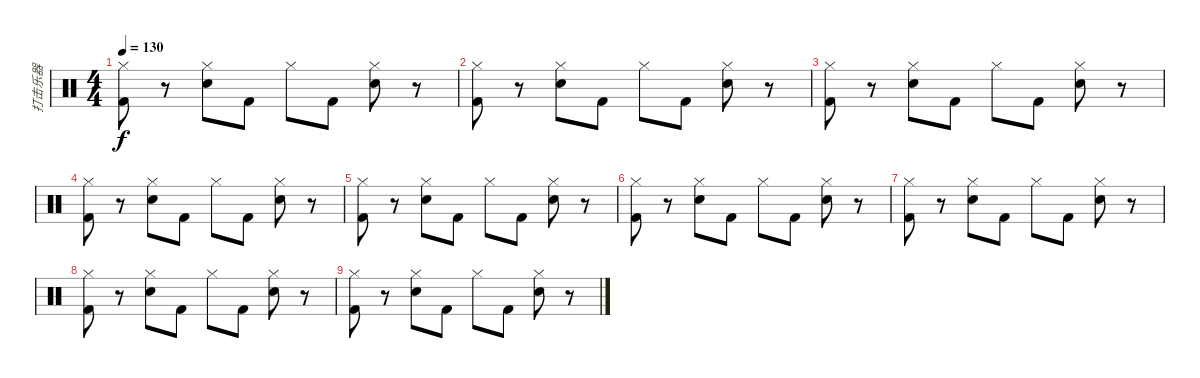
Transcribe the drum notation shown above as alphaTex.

\track ("打击乐器" "打击乐器") {instrument percussion}
\staff {score}
\articulation defaults
\ts (4 4)
\tempo 130
\clef neutral
\ks c
("Hi-Hat (closed)" "Kick (hit) 2").8{dy f} r.8 ("Hi-Hat (closed)" "Electric Snare (hit)").8 "Kick (hit) 2".8 "Hi-Hat (closed)".8 "Kick (hit) 2".8 ("Hi-Hat (closed)" "Electric Snare (hit)").8 r.8 |
("Hi-Hat (closed)" "Kick (hit) 2").8 r.8 ("Hi-Hat (closed)" "Electric Snare (hit)").8 "Kick (hit) 2".8 "Hi-Hat (closed)".8 "Kick (hit) 2".8 ("Hi-Hat (closed)" "Electric Snare (hit)").8 r.8 |
("Hi-Hat (closed)" "Kick (hit) 2").8 r.8 ("Hi-Hat (closed)" "Electric Snare (hit)").8 "Kick (hit) 2".8 "Hi-Hat (closed)".8 "Kick (hit) 2".8 ("Hi-Hat (closed)" "Electric Snare (hit)").8 r.8 |
("Hi-Hat (closed)" "Kick (hit) 2").8 r.8 ("Hi-Hat (closed)" "Electric Snare (hit)").8 "Kick (hit) 2".8 "Hi-Hat (closed)".8 "Kick (hit) 2".8 ("Hi-Hat (closed)" "Electric Snare (hit)").8 r.8 |
("Hi-Hat (closed)" "Kick (hit) 2").8 r.8 ("Hi-Hat (closed)" "Electric Snare (hit)").8 "Kick (hit) 2".8 "Hi-Hat (closed)".8 "Kick (hit) 2".8 ("Hi-Hat (closed)" "Electric Snare (hit)").8 r.8 |
("Hi-Hat (closed)" "Kick (hit) 2").8 r.8 ("Hi-Hat (closed)" "Electric Snare (hit)").8 "Kick (hit) 2".8 "Hi-Hat (closed)".8 "Kick (hit) 2".8 ("Hi-Hat (closed)" "Electric Snare (hit)").8 r.8 |
("Hi-Hat (closed)" "Kick (hit) 2").8 r.8 ("Hi-Hat (closed)" "Electric Snare (hit)").8 "Kick (hit) 2".8 "Hi-Hat (closed)".8 "Kick (hit) 2".8 ("Hi-Hat (closed)" "Electric Snare (hit)").8 r.8 |
("Hi-Hat (closed)" "Kick (hit) 2").8 r.8 ("Hi-Hat (closed)" "Electric Snare (hit)").8 "Kick (hit) 2".8 "Hi-Hat (closed)".8 "Kick (hit) 2".8 ("Hi-Hat (closed)" "Electric Snare (hit)").8 r.8 |
("Hi-Hat (closed)" "Kick (hit) 2").8 r.8 ("Hi-Hat (closed)" "Electric Snare (hit)").8 "Kick (hit) 2".8 "Hi-Hat (closed)".8 "Kick (hit) 2".8 ("Hi-Hat (closed)" "Electric Snare (hit)").8 r.8
